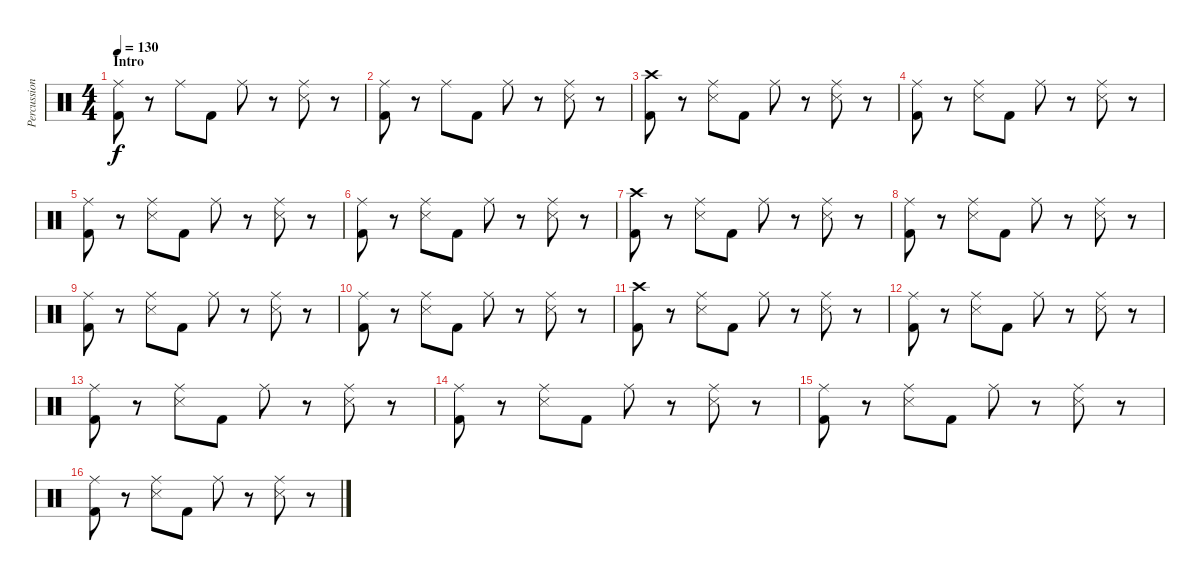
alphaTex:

\track ("Percussion" "Percussion") {instrument percussion}
\staff {score}
\articulation defaults
\ts (4 4)
\section ("" "Intro")
\tempo 130
\clef neutral
\ks c
("Ride (middle)" "Kick (hit) 2").8{dy f} r.8 "Ride (middle)".8 "Kick (hit) 2".8 "Ride (middle)".8 r.8 ("Ride (middle)" "Metronome (hit)").8 r.8 |
("Ride (middle)" "Kick (hit) 2").8 r.8 "Ride (middle)".8 "Kick (hit) 2".8 "Ride (middle)".8 r.8 ("Ride (middle)" "Metronome (hit)").8 r.8 |
("Crash high (hit)" "Kick (hit) 2").8 r.8 ("Ride (middle)" "Metronome (hit)").8 "Kick (hit) 2".8 "Ride (middle)".8 r.8 ("Ride (middle)" "Metronome (hit)").8 r.8 |
("Ride (middle)" "Kick (hit) 2").8 r.8 ("Ride (middle)" "Metronome (hit)").8 "Kick (hit) 2".8 "Ride (middle)".8 r.8 ("Ride (middle)" "Metronome (hit)").8 r.8 |
("Ride (middle)" "Kick (hit) 2").8 r.8 ("Ride (middle)" "Metronome (hit)").8 "Kick (hit) 2".8 "Ride (middle)".8 r.8 ("Ride (middle)" "Metronome (hit)").8 r.8 |
("Ride (middle)" "Kick (hit) 2").8 r.8 ("Ride (middle)" "Metronome (hit)").8 "Kick (hit) 2".8 "Ride (middle)".8 r.8 ("Ride (middle)" "Metronome (hit)").8 r.8 |
("Crash high (hit)" "Kick (hit) 2").8 r.8 ("Ride (middle)" "Metronome (hit)").8 "Kick (hit) 2".8 "Ride (middle)".8 r.8 ("Ride (middle)" "Metronome (hit)").8 r.8 |
("Ride (middle)" "Kick (hit) 2").8 r.8 ("Ride (middle)" "Metronome (hit)").8 "Kick (hit) 2".8 "Ride (middle)".8 r.8 ("Ride (middle)" "Metronome (hit)").8 r.8 |
("Ride (middle)" "Kick (hit) 2").8 r.8 ("Ride (middle)" "Metronome (hit)").8 "Kick (hit) 2".8 "Ride (middle)".8 r.8 ("Ride (middle)" "Metronome (hit)").8 r.8 |
("Ride (middle)" "Kick (hit) 2").8 r.8 ("Ride (middle)" "Metronome (hit)").8 "Kick (hit) 2".8 "Ride (middle)".8 r.8 ("Ride (middle)" "Metronome (hit)").8 r.8 |
("Crash high (hit)" "Kick (hit) 2").8 r.8 ("Ride (middle)" "Metronome (hit)").8 "Kick (hit) 2".8 "Ride (middle)".8 r.8 ("Ride (middle)" "Metronome (hit)").8 r.8 |
("Ride (middle)" "Kick (hit) 2").8 r.8 ("Ride (middle)" "Metronome (hit)").8 "Kick (hit) 2".8 "Ride (middle)".8 r.8 ("Ride (middle)" "Metronome (hit)").8 r.8 |
("Ride (middle)" "Kick (hit) 2").8 r.8 ("Ride (middle)" "Metronome (hit)").8 "Kick (hit) 2".8 "Ride (middle)".8 r.8 ("Ride (middle)" "Metronome (hit)").8 r.8 |
("Ride (middle)" "Kick (hit) 2").8 r.8 ("Ride (middle)" "Metronome (hit)").8 "Kick (hit) 2".8 "Ride (middle)".8 r.8 ("Ride (middle)" "Metronome (hit)").8 r.8 |
("Ride (middle)" "Kick (hit) 2").8 r.8 ("Ride (middle)" "Metronome (hit)").8 "Kick (hit) 2".8 "Ride (middle)".8 r.8 ("Ride (middle)" "Metronome (hit)").8 r.8 |
("Ride (middle)" "Kick (hit) 2").8 r.8 ("Ride (middle)" "Metronome (hit)").8 "Kick (hit) 2".8 "Ride (middle)".8 r.8 ("Ride (middle)" "Metronome (hit)").8 r.8
